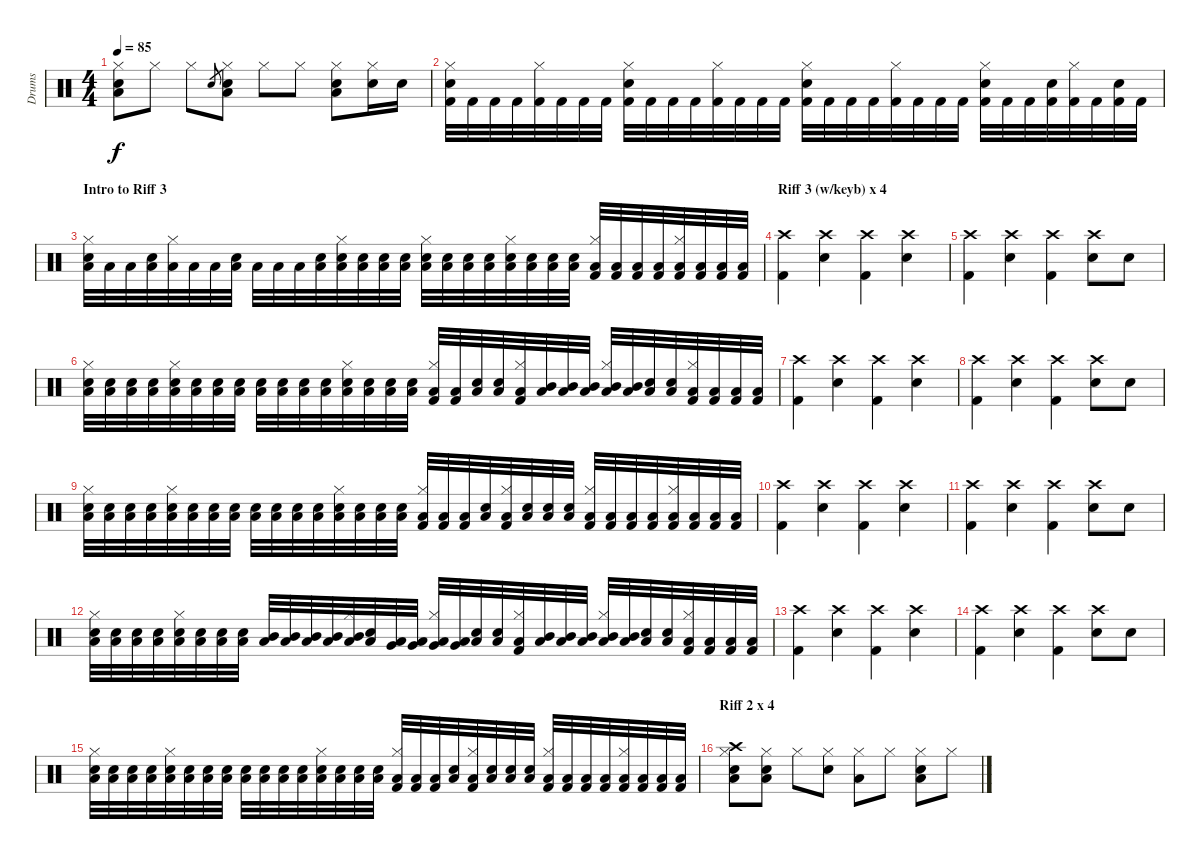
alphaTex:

\track ("Drums" "Drums") {instrument percussion}
\staff {score}
\articulation defaults
\ts (4 4)
\tempo 85
\clef neutral
\ks c
("Low Tom (hit)" "Snare (hit) 2" "Hi-Hat (closed)").8{dy f} "Hi-Hat (closed)".8 "Hi-Hat (closed)".8 "Snare (hit) 2".8{gr} ("Low Tom (hit)" "Snare (hit) 2" "Hi-Hat (closed)").8 "Hi-Hat (closed)".8 "Hi-Hat (closed)".8 ("Low Tom (hit)" "Snare (hit) 2" "Hi-Hat (closed)").8 ("Snare (hit) 2" "Hi-Hat (closed)").16 "Snare (hit) 2".16 |
("Kick (hit) 2" "Snare (hit) 2" "Hi-Hat (closed)").32 "Kick (hit) 2".32 "Kick (hit) 2".32 "Kick (hit) 2".32 ("Kick (hit) 2" "Hi-Hat (closed)").32 "Kick (hit) 2".32 "Kick (hit) 2".32 "Kick (hit) 2".32 ("Kick (hit) 2" "Snare (hit) 2" "Hi-Hat (closed)").32 "Kick (hit) 2".32 "Kick (hit) 2".32 "Kick (hit) 2".32 ("Kick (hit) 2" "Hi-Hat (closed)").32 "Kick (hit) 2".32 "Kick (hit) 2".32 "Kick (hit) 2".32 ("Kick (hit) 2" "Snare (hit) 2" "Hi-Hat (closed)").32 "Kick (hit) 2".32 "Kick (hit) 2".32 "Kick (hit) 2".32 ("Kick (hit) 2" "Hi-Hat (closed)").32 "Kick (hit) 2".32 "Kick (hit) 2".32 "Kick (hit) 2".32 ("Kick (hit) 2" "Snare (hit) 2" "Hi-Hat (closed)").32 "Kick (hit) 2".32 "Kick (hit) 2".32 ("Kick (hit) 2" "Snare (hit) 2").32 ("Kick (hit) 2" "Hi-Hat (closed)").32 "Kick (hit) 2".32 ("Kick (hit) 2" "Snare (hit) 2").32 "Kick (hit) 2".32 |
\section ("" "Intro to Riff 3")
("Low Tom (hit)" "Electric Snare (hit)" "Hi-Hat (closed)").32 "Low Tom (hit)".32 "Low Tom (hit)".32 ("Low Tom (hit)" "Electric Snare (hit)").32 ("Low Tom (hit)" "Hi-Hat (closed)").32 "Low Tom (hit)".32 "Low Tom (hit)".32 ("Low Tom (hit)" "Electric Snare (hit)").32 "Low Tom (hit)".32 "Low Tom (hit)".32 "Low Tom (hit)".32 ("Low Tom (hit)" "Electric Snare (hit)").32 ("Low Tom (hit)" "Electric Snare (hit)" "Hi-Hat (closed)").32 ("Low Tom (hit)" "Electric Snare (hit)").32 ("Low Tom (hit)" "Electric Snare (hit)").32 ("Low Tom (hit)" "Electric Snare (hit)").32 ("Low Tom (hit)" "Snare (hit) 2" "Hi-Hat (closed)").32 ("Low Tom (hit)" "Snare (hit) 2").32 ("Low Tom (hit)" "Snare (hit) 2").32 ("Low Tom (hit)" "Snare (hit) 2").32 ("Low Tom (hit)" "Snare (hit) 2" "Hi-Hat (closed)").32 ("Low Tom (hit)" "Snare (hit) 2").32 ("Low Tom (hit)" "Snare (hit) 2").32 ("Low Tom (hit)" "Snare (hit) 2").32 ("Low Tom (hit)" "Kick (hit) 2" "Hi-Hat (closed)").32 ("Low Tom (hit)" "Kick (hit) 2").32 ("Low Tom (hit)" "Kick (hit) 2").32 ("Low Tom (hit)" "Kick (hit) 2").32 ("Low Tom (hit)" "Kick (hit) 2" "Hi-Hat (closed)").32 ("Low Tom (hit)" "Kick (hit) 2").32 ("Low Tom (hit)" "Kick (hit) 2").32 ("Low Tom (hit)" "Kick (hit) 2").32 |
\section ("" "Riff 3 (w/keyb) x 4")
("Crash high (hit)" "Kick (hit) 2").4 ("Crash high (hit)" "Snare (hit) 2").4 ("Crash high (hit)" "Kick (hit) 2").4 ("Crash high (hit)" "Snare (hit) 2").4 |
("Crash high (hit)" "Kick (hit) 2").4 ("Crash high (hit)" "Snare (hit) 2").4 ("Crash high (hit)" "Kick (hit) 2").4 ("Crash high (hit)" "Snare (hit) 2").8 "Snare (hit) 2".8 |
("Low Tom (hit)" "Electric Snare (hit)" "Hi-Hat (closed)").32 ("Low Tom (hit)" "Electric Snare (hit)").32 ("Low Tom (hit)" "Electric Snare (hit)").32 ("Low Tom (hit)" "Electric Snare (hit)").32 ("Low Tom (hit)" "Snare (hit) 2" "Hi-Hat (closed)").32 ("Low Tom (hit)" "Snare (hit) 2").32 ("Low Tom (hit)" "Snare (hit) 2").32 ("Low Tom (hit)" "Snare (hit) 2").32 ("Low Tom (hit)" "Electric Snare (hit)").32 ("Low Tom (hit)" "Electric Snare (hit)").32 ("Low Tom (hit)" "Electric Snare (hit)").32 ("Low Tom (hit)" "Electric Snare (hit)").32 ("Low Tom (hit)" "Electric Snare (hit)" "Hi-Hat (closed)").32 ("Low Tom (hit)" "Snare (hit) 2").32 ("Low Tom (hit)" "Snare (hit) 2").32 ("Low Tom (hit)" "Snare (hit) 2").32 ("Low Tom (hit)" "Kick (hit) 2" "Hi-Hat (closed)").32 ("Low Tom (hit)" "Kick (hit) 2").32 ("Low Tom (hit)" "Electric Snare (hit)").32 ("Low Tom (hit)" "Electric Snare (hit)").32 ("Low Tom (hit)" "Kick (hit) 2" "Hi-Hat (closed)").32 ("Low Tom (hit)" "Mid Tom (hit)").32 ("Low Tom (hit)" "Mid Tom (hit)").32 ("Low Tom (hit)" "Mid Tom (hit)").32 ("Low Tom (hit)" "Mid Tom (hit)" "Hi-Hat (closed)").32 ("Low Tom (hit)" "Mid Tom (hit)").32 ("Low Tom (hit)" "Electric Snare (hit)").32 ("Low Tom (hit)" "Electric Snare (hit)").32 ("Low Tom (hit)" "Kick (hit) 2" "Hi-Hat (closed)").32 ("Low Tom (hit)" "Kick (hit) 2").32 ("Low Tom (hit)" "Kick (hit) 2").32 ("Low Tom (hit)" "Kick (hit) 2").32 |
("Crash high (hit)" "Kick (hit) 2").4 ("Crash high (hit)" "Snare (hit) 2").4 ("Crash high (hit)" "Kick (hit) 2").4 ("Crash high (hit)" "Snare (hit) 2").4 |
("Crash high (hit)" "Kick (hit) 2").4 ("Crash high (hit)" "Snare (hit) 2").4 ("Crash high (hit)" "Kick (hit) 2").4 ("Crash high (hit)" "Snare (hit) 2").8 "Snare (hit) 2".8 |
("Low Tom (hit)" "Electric Snare (hit)" "Hi-Hat (closed)").32 ("Low Tom (hit)" "Electric Snare (hit)").32 ("Low Tom (hit)" "Electric Snare (hit)").32 ("Low Tom (hit)" "Electric Snare (hit)").32 ("Low Tom (hit)" "Snare (hit) 2" "Hi-Hat (closed)").32 ("Low Tom (hit)" "Snare (hit) 2").32 ("Low Tom (hit)" "Snare (hit) 2").32 ("Low Tom (hit)" "Snare (hit) 2").32 ("Low Tom (hit)" "Electric Snare (hit)").32 ("Low Tom (hit)" "Electric Snare (hit)").32 ("Low Tom (hit)" "Electric Snare (hit)").32 ("Low Tom (hit)" "Electric Snare (hit)").32 ("Low Tom (hit)" "Electric Snare (hit)" "Hi-Hat (closed)").32 ("Low Tom (hit)" "Snare (hit) 2").32 ("Low Tom (hit)" "Snare (hit) 2").32 ("Low Tom (hit)" "Snare (hit) 2").32 ("Low Tom (hit)" "Kick (hit) 2" "Hi-Hat (closed)").32 ("Low Tom (hit)" "Kick (hit) 2").32 ("Low Tom (hit)" "Kick (hit) 2").32 ("Low Tom (hit)" "Snare (hit) 2").32 ("Low Tom (hit)" "Kick (hit) 2" "Hi-Hat (closed)").32 ("Low Tom (hit)" "Electric Snare (hit)").32 ("Low Tom (hit)" "Electric Snare (hit)").32 ("Low Tom (hit)" "Electric Snare (hit)").32 ("Low Tom (hit)" "Kick (hit) 2" "Hi-Hat (closed)").32 ("Low Tom (hit)" "Kick (hit) 2").32 ("Low Tom (hit)" "Kick (hit) 2").32 ("Low Tom (hit)" "Kick (hit) 2").32 ("Low Tom (hit)" "Kick (hit) 2" "Hi-Hat (closed)").32 ("Low Tom (hit)" "Kick (hit) 2").32 ("Low Tom (hit)" "Kick (hit) 2").32 ("Low Tom (hit)" "Kick (hit) 2").32 |
("Crash high (hit)" "Kick (hit) 2").4 ("Crash high (hit)" "Snare (hit) 2").4 ("Crash high (hit)" "Kick (hit) 2").4 ("Crash high (hit)" "Snare (hit) 2").4 |
("Crash high (hit)" "Kick (hit) 2").4 ("Crash high (hit)" "Snare (hit) 2").4 ("Crash high (hit)" "Kick (hit) 2").4 ("Crash high (hit)" "Snare (hit) 2").8 "Snare (hit) 2".8 |
("Low Tom (hit)" "Electric Snare (hit)" "Hi-Hat (closed)").32 ("Low Tom (hit)" "Electric Snare (hit)").32 ("Low Tom (hit)" "Electric Snare (hit)").32 ("Low Tom (hit)" "Electric Snare (hit)").32 ("Low Tom (hit)" "Snare (hit) 2" "Hi-Hat (closed)").32 ("Low Tom (hit)" "Snare (hit) 2").32 ("Low Tom (hit)" "Electric Snare (hit)").32 ("Low Tom (hit)" "Electric Snare (hit)").32 ("Low Tom (hit)" "Mid Tom (hit)").32 ("Low Tom (hit)" "Mid Tom (hit)").32 ("Low Tom (hit)" "Mid Tom (hit)").32 ("Low Tom (hit)" "Mid Tom (hit)").32 ("Low Tom (hit)" "Mid Tom (hit)" "Hi-Hat (closed)").32 ("Low Tom (hit)" "Snare (hit) 2").32 ("Low Tom (hit)" "Very Low Tom (hit)").32 ("Low Tom (hit)" "Very Low Tom (hit)").32 ("Low Tom (hit)" "Very Low Tom (hit)" "Hi-Hat (closed)").32 ("Low Tom (hit)" "Very Low Tom (hit)").32 ("Low Tom (hit)" "Electric Snare (hit)").32 ("Low Tom (hit)" "Electric Snare (hit)").32 ("Low Tom (hit)" "Kick (hit) 2" "Hi-Hat (closed)").32 ("Low Tom (hit)" "Mid Tom (hit)").32 ("Low Tom (hit)" "Mid Tom (hit)").32 ("Low Tom (hit)" "Mid Tom (hit)").32 ("Low Tom (hit)" "Mid Tom (hit)" "Hi-Hat (closed)").32 ("Low Tom (hit)" "Mid Tom (hit)").32 ("Low Tom (hit)" "Electric Snare (hit)").32 ("Low Tom (hit)" "Electric Snare (hit)").32 ("Low Tom (hit)" "Kick (hit) 2" "Hi-Hat (closed)").32 ("Low Tom (hit)" "Kick (hit) 2").32 ("Low Tom (hit)" "Kick (hit) 2").32 ("Low Tom (hit)" "Kick (hit) 2").32 |
("Crash high (hit)" "Kick (hit) 2").4 ("Crash high (hit)" "Snare (hit) 2").4 ("Crash high (hit)" "Kick (hit) 2").4 ("Crash high (hit)" "Snare (hit) 2").4 |
("Crash high (hit)" "Kick (hit) 2").4 ("Crash high (hit)" "Snare (hit) 2").4 ("Crash high (hit)" "Kick (hit) 2").4 ("Crash high (hit)" "Snare (hit) 2").8 "Snare (hit) 2".8 |
("Low Tom (hit)" "Electric Snare (hit)" "Hi-Hat (closed)").32 ("Low Tom (hit)" "Electric Snare (hit)").32 ("Low Tom (hit)" "Electric Snare (hit)").32 ("Low Tom (hit)" "Electric Snare (hit)").32 ("Low Tom (hit)" "Snare (hit) 2" "Hi-Hat (closed)").32 ("Low Tom (hit)" "Snare (hit) 2").32 ("Low Tom (hit)" "Snare (hit) 2").32 ("Low Tom (hit)" "Snare (hit) 2").32 ("Low Tom (hit)" "Electric Snare (hit)").32 ("Low Tom (hit)" "Electric Snare (hit)").32 ("Low Tom (hit)" "Electric Snare (hit)").32 ("Low Tom (hit)" "Electric Snare (hit)").32 ("Low Tom (hit)" "Electric Snare (hit)" "Hi-Hat (closed)").32 ("Low Tom (hit)" "Snare (hit) 2").32 ("Low Tom (hit)" "Snare (hit) 2").32 ("Low Tom (hit)" "Snare (hit) 2").32 ("Low Tom (hit)" "Kick (hit) 2" "Hi-Hat (closed)").32 ("Low Tom (hit)" "Kick (hit) 2").32 ("Low Tom (hit)" "Kick (hit) 2").32 ("Low Tom (hit)" "Snare (hit) 2").32 ("Low Tom (hit)" "Kick (hit) 2" "Hi-Hat (closed)").32 ("Low Tom (hit)" "Electric Snare (hit)").32 ("Low Tom (hit)" "Electric Snare (hit)").32 ("Low Tom (hit)" "Electric Snare (hit)").32 ("Low Tom (hit)" "Kick (hit) 2" "Hi-Hat (closed)").32 ("Low Tom (hit)" "Kick (hit) 2").32 ("Low Tom (hit)" "Kick (hit) 2").32 ("Low Tom (hit)" "Kick (hit) 2").32 ("Low Tom (hit)" "Kick (hit) 2" "Hi-Hat (closed)").32 ("Low Tom (hit)" "Kick (hit) 2").32 ("Low Tom (hit)" "Kick (hit) 2").32 ("Low Tom (hit)" "Kick (hit) 2").32 |
\section ("" "Riff 2 x 4")
("Low Tom (hit)" "Snare (hit) 2" "Hi-Hat (closed)" "Crash high (hit)").8 ("Low Tom (hit)" "Snare (hit) 2" "Hi-Hat (closed)").8 "Hi-Hat (closed)".8 ("Snare (hit) 2" "Hi-Hat (closed)").8 ("Low Tom (hit)" "Hi-Hat (closed)").8 "Hi-Hat (closed)".8 ("Low Tom (hit)" "Snare (hit) 2" "Hi-Hat (closed)").8 "Hi-Hat (closed)".8
